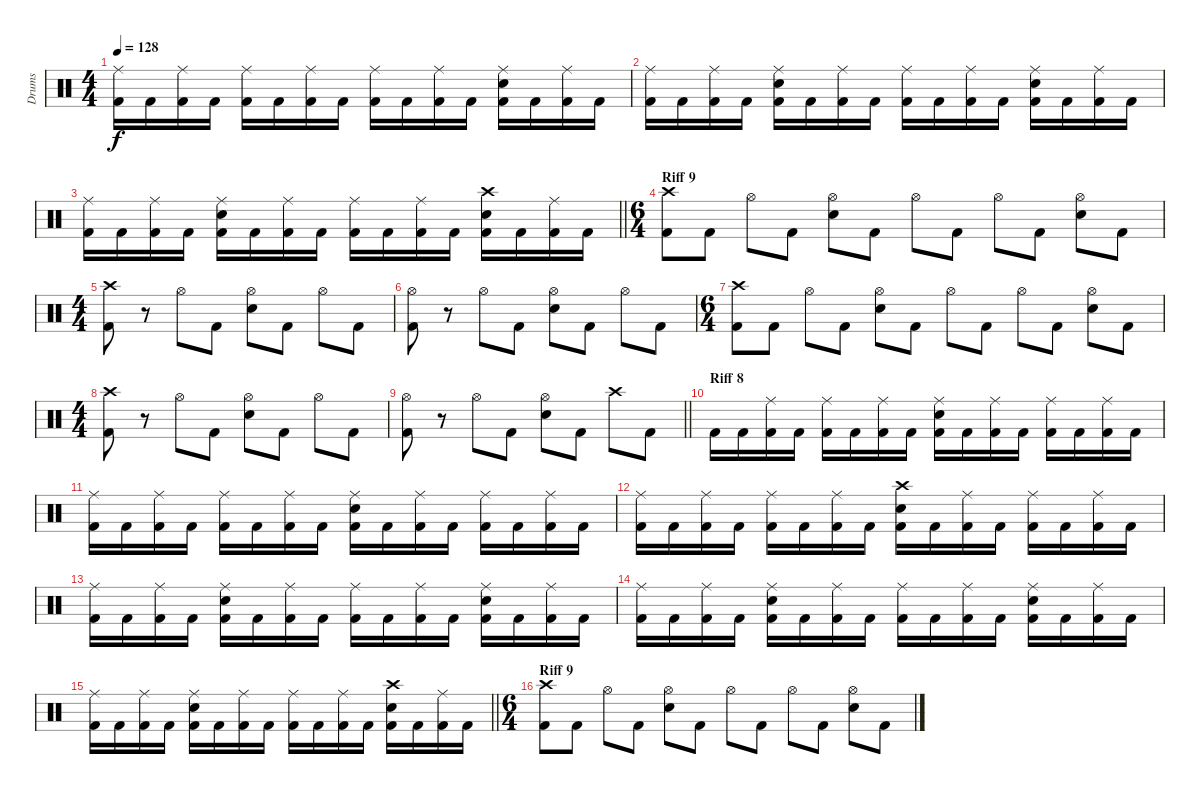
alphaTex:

\track ("Drums" "Drums") {instrument percussion}
\staff {score}
\articulation defaults
\ts (4 4)
\tempo 128
\clef neutral
\ks c
("Ride (middle)" "Kick (hit) 2").16{dy f} "Kick (hit) 2".16 ("Ride (middle)" "Kick (hit) 2").16 "Kick (hit) 2".16 ("Ride (middle)" "Kick (hit) 2").16 "Kick (hit) 2".16 ("Ride (middle)" "Kick (hit) 2").16 "Kick (hit) 2".16 ("Ride (middle)" "Kick (hit) 2").16 "Kick (hit) 2".16 ("Ride (middle)" "Kick (hit) 2").16 "Kick (hit) 2".16 ("Ride (middle)" "Electric Snare (hit)" "Kick (hit) 2").16 "Kick (hit) 2".16 ("Ride (middle)" "Kick (hit) 2").16 "Kick (hit) 2".16 |
("Ride (middle)" "Kick (hit) 2").16 "Kick (hit) 2".16 ("Ride (middle)" "Kick (hit) 2").16 "Kick (hit) 2".16 ("Ride (middle)" "Electric Snare (hit)" "Kick (hit) 2").16 "Kick (hit) 2".16 ("Ride (middle)" "Kick (hit) 2").16 "Kick (hit) 2".16 ("Ride (middle)" "Kick (hit) 2").16 "Kick (hit) 2".16 ("Ride (middle)" "Kick (hit) 2").16 "Kick (hit) 2".16 ("Ride (middle)" "Electric Snare (hit)" "Kick (hit) 2").16 "Kick (hit) 2".16 ("Ride (middle)" "Kick (hit) 2").16 "Kick (hit) 2".16 |
\barLineRight lightlight
("Ride (middle)" "Kick (hit) 2").16 "Kick (hit) 2".16 ("Ride (middle)" "Kick (hit) 2").16 "Kick (hit) 2".16 ("Ride (middle)" "Electric Snare (hit)" "Kick (hit) 2").16 "Kick (hit) 2".16 ("Ride (middle)" "Kick (hit) 2").16 "Kick (hit) 2".16 ("Ride (middle)" "Kick (hit) 2").16 "Kick (hit) 2".16 ("Ride (middle)" "Kick (hit) 2").16 "Kick (hit) 2".16 ("Crash high (hit)" "Electric Snare (hit)" "Kick (hit) 2").16 "Kick (hit) 2".16 ("Ride (middle)" "Kick (hit) 2").16 "Kick (hit) 2".16 |
\ts (6 4)
\section ("" "Riff 9")
("Crash high (hit)" "Kick (hit) 2").8 "Kick (hit) 2".8 "Hi-Hat (open)".8 "Kick (hit) 2".8 ("Hi-Hat (open)" "Electric Snare (hit)").8 "Kick (hit) 2".8 "Hi-Hat (open)".8 "Kick (hit) 2".8 "Hi-Hat (open)".8 "Kick (hit) 2".8 ("Hi-Hat (open)" "Electric Snare (hit)").8 "Kick (hit) 2".8 |
\ts (4 4)
("Crash high (hit)" "Kick (hit) 2").8 r.8 "Hi-Hat (open)".8 "Kick (hit) 2".8 ("Hi-Hat (open)" "Electric Snare (hit)").8 "Kick (hit) 2".8 "Hi-Hat (open)".8 "Kick (hit) 2".8 |
("Hi-Hat (open)" "Kick (hit) 2").8 r.8 "Hi-Hat (open)".8 "Kick (hit) 2".8 ("Hi-Hat (open)" "Electric Snare (hit)").8 "Kick (hit) 2".8 "Hi-Hat (open)".8 "Kick (hit) 2".8 |
\ts (6 4)
("Crash high (hit)" "Kick (hit) 2").8 "Kick (hit) 2".8 "Hi-Hat (open)".8 "Kick (hit) 2".8 ("Hi-Hat (open)" "Electric Snare (hit)").8 "Kick (hit) 2".8 "Hi-Hat (open)".8 "Kick (hit) 2".8 "Hi-Hat (open)".8 "Kick (hit) 2".8 ("Hi-Hat (open)" "Electric Snare (hit)").8 "Kick (hit) 2".8 |
\ts (4 4)
("Crash high (hit)" "Kick (hit) 2").8 r.8 "Hi-Hat (open)".8 "Kick (hit) 2".8 ("Hi-Hat (open)" "Electric Snare (hit)").8 "Kick (hit) 2".8 "Hi-Hat (open)".8 "Kick (hit) 2".8 |
\barLineRight lightlight
("Hi-Hat (open)" "Kick (hit) 2").8 r.8 "Hi-Hat (open)".8 "Kick (hit) 2".8 ("Hi-Hat (open)" "Electric Snare (hit)").8 "Kick (hit) 2".8 "Crash high (hit)".8 "Kick (hit) 2".8 |
\section ("" "Riff 8")
"Kick (hit) 2".16 "Kick (hit) 2".16 ("Ride (middle)" "Kick (hit) 2").16 "Kick (hit) 2".16 ("Ride (middle)" "Kick (hit) 2").16 "Kick (hit) 2".16 ("Ride (middle)" "Kick (hit) 2").16 "Kick (hit) 2".16 ("Ride (middle)" "Electric Snare (hit)" "Kick (hit) 2").16 "Kick (hit) 2".16 ("Ride (middle)" "Kick (hit) 2").16 "Kick (hit) 2".16 ("Ride (middle)" "Kick (hit) 2").16 "Kick (hit) 2".16 ("Ride (middle)" "Kick (hit) 2").16 "Kick (hit) 2".16 |
("Ride (middle)" "Kick (hit) 2").16 "Kick (hit) 2".16 ("Ride (middle)" "Kick (hit) 2").16 "Kick (hit) 2".16 ("Ride (middle)" "Kick (hit) 2").16 "Kick (hit) 2".16 ("Ride (middle)" "Kick (hit) 2").16 "Kick (hit) 2".16 ("Ride (middle)" "Electric Snare (hit)" "Kick (hit) 2").16 "Kick (hit) 2".16 ("Ride (middle)" "Kick (hit) 2").16 "Kick (hit) 2".16 ("Ride (middle)" "Kick (hit) 2").16 "Kick (hit) 2".16 ("Ride (middle)" "Kick (hit) 2").16 "Kick (hit) 2".16 |
("Ride (middle)" "Kick (hit) 2").16 "Kick (hit) 2".16 ("Ride (middle)" "Kick (hit) 2").16 "Kick (hit) 2".16 ("Ride (middle)" "Kick (hit) 2").16 "Kick (hit) 2".16 ("Ride (middle)" "Kick (hit) 2").16 "Kick (hit) 2".16 ("Crash high (hit)" "Electric Snare (hit)" "Kick (hit) 2").16 "Kick (hit) 2".16 ("Ride (middle)" "Kick (hit) 2").16 "Kick (hit) 2".16 ("Ride (middle)" "Kick (hit) 2").16 "Kick (hit) 2".16 ("Ride (middle)" "Kick (hit) 2").16 "Kick (hit) 2".16 |
("Ride (middle)" "Kick (hit) 2").16 "Kick (hit) 2".16 ("Ride (middle)" "Kick (hit) 2").16 "Kick (hit) 2".16 ("Ride (middle)" "Electric Snare (hit)" "Kick (hit) 2").16 "Kick (hit) 2".16 ("Ride (middle)" "Kick (hit) 2").16 "Kick (hit) 2".16 ("Ride (middle)" "Kick (hit) 2").16 "Kick (hit) 2".16 ("Ride (middle)" "Kick (hit) 2").16 "Kick (hit) 2".16 ("Ride (middle)" "Electric Snare (hit)" "Kick (hit) 2").16 "Kick (hit) 2".16 ("Ride (middle)" "Kick (hit) 2").16 "Kick (hit) 2".16 |
("Ride (middle)" "Kick (hit) 2").16 "Kick (hit) 2".16 ("Ride (middle)" "Kick (hit) 2").16 "Kick (hit) 2".16 ("Ride (middle)" "Electric Snare (hit)" "Kick (hit) 2").16 "Kick (hit) 2".16 ("Ride (middle)" "Kick (hit) 2").16 "Kick (hit) 2".16 ("Ride (middle)" "Kick (hit) 2").16 "Kick (hit) 2".16 ("Ride (middle)" "Kick (hit) 2").16 "Kick (hit) 2".16 ("Ride (middle)" "Electric Snare (hit)" "Kick (hit) 2").16 "Kick (hit) 2".16 ("Ride (middle)" "Kick (hit) 2").16 "Kick (hit) 2".16 |
\barLineRight lightlight
("Ride (middle)" "Kick (hit) 2").16 "Kick (hit) 2".16 ("Ride (middle)" "Kick (hit) 2").16 "Kick (hit) 2".16 ("Ride (middle)" "Electric Snare (hit)" "Kick (hit) 2").16 "Kick (hit) 2".16 ("Ride (middle)" "Kick (hit) 2").16 "Kick (hit) 2".16 ("Ride (middle)" "Kick (hit) 2").16 "Kick (hit) 2".16 ("Ride (middle)" "Kick (hit) 2").16 "Kick (hit) 2".16 ("Crash high (hit)" "Electric Snare (hit)" "Kick (hit) 2").16 "Kick (hit) 2".16 ("Ride (middle)" "Kick (hit) 2").16 "Kick (hit) 2".16 |
\ts (6 4)
\section ("" "Riff 9")
("Crash high (hit)" "Kick (hit) 2").8 "Kick (hit) 2".8 "Hi-Hat (open)".8 "Kick (hit) 2".8 ("Hi-Hat (open)" "Electric Snare (hit)").8 "Kick (hit) 2".8 "Hi-Hat (open)".8 "Kick (hit) 2".8 "Hi-Hat (open)".8 "Kick (hit) 2".8 ("Hi-Hat (open)" "Electric Snare (hit)").8 "Kick (hit) 2".8
